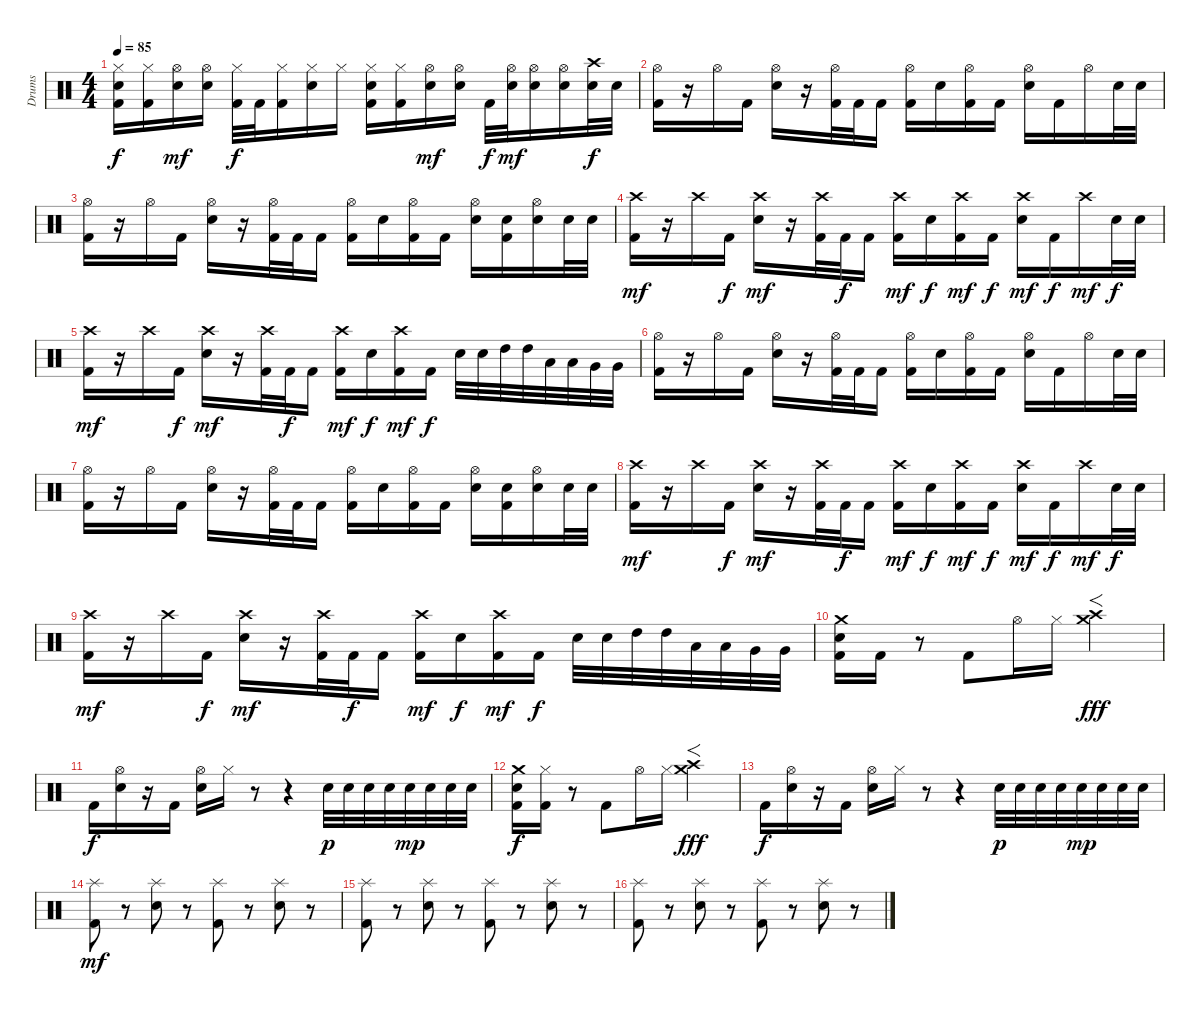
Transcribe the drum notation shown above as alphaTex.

\track ("Drums" "Drums") {instrument percussion}
\staff {score}
\articulation defaults
\ts (4 4)
\tempo 85
\clef neutral
\ks c
("Hi-Hat (closed)" "Kick (hit) 2" "Snare (hit) 2").16{dy f} ("Hi-Hat (closed)" "Kick (hit) 2").16 ("Hi-Hat (open)" "Snare (hit) 2").16{dy mf} ("Hi-Hat (open)" "Snare (hit) 2").16 ("Hi-Hat (closed)" "Kick (hit) 2").32{dy f} "Kick (hit) 2".32 ("Hi-Hat (closed)" "Kick (hit) 2").16 ("Hi-Hat (closed)" "Snare (hit) 2").16 "Hi-Hat (closed)".16 ("Hi-Hat (closed)" "Kick (hit) 2" "Snare (hit) 2").16 ("Hi-Hat (closed)" "Kick (hit) 2").16 ("Hi-Hat (open)" "Snare (hit) 2").16{dy mf} ("Hi-Hat (open)" "Snare (hit) 2").16 "Kick (hit) 2".32{dy f} ("Hi-Hat (open)" "Snare (hit) 2").32{dy mf} ("Hi-Hat (open)" "Snare (hit) 2").16 ("Hi-Hat (open)" "Snare (hit) 2").16 ("Crash high (hit)" "Snare (hit) 2").32{dy f} "Snare (hit) 2".32 |
("Hi-Hat (open)" "Kick (hit) 2").16 r.16 "Hi-Hat (open)".16 "Kick (hit) 2".16 ("Hi-Hat (open)" "Snare (hit) 2").16 r.16 ("Hi-Hat (open)" "Kick (hit) 2").32 "Kick (hit) 2".32 "Kick (hit) 2".16 ("Hi-Hat (open)" "Kick (hit) 2").16 "Snare (hit) 2".16 ("Hi-Hat (open)" "Kick (hit) 2").16 "Kick (hit) 2".16 ("Hi-Hat (open)" "Snare (hit) 2").16 "Kick (hit) 2".16 "Hi-Hat (open)".16 "Snare (hit) 2".32 "Snare (hit) 2".32 |
("Hi-Hat (open)" "Kick (hit) 2").16 r.16 "Hi-Hat (open)".16 "Kick (hit) 2".16 ("Hi-Hat (open)" "Snare (hit) 2").16 r.16 ("Hi-Hat (open)" "Kick (hit) 2").32 "Kick (hit) 2".32 "Kick (hit) 2".16 ("Hi-Hat (open)" "Kick (hit) 2").16 "Snare (hit) 2".16 ("Hi-Hat (open)" "Kick (hit) 2").16 "Kick (hit) 2".16 ("Hi-Hat (open)" "Snare (hit) 2").16 ("Snare (hit) 2" "Kick (hit) 2").16 ("Hi-Hat (open)" "Snare (hit) 2").16 "Snare (hit) 2".32 "Snare (hit) 2".32 |
("Crash high (hit)" "Kick (hit) 2").16{dy mf} r.16 "Crash high (hit)".16 "Kick (hit) 2".16{dy f} ("Crash high (hit)" "Snare (hit) 2").16{dy mf} r.16 ("Crash high (hit)" "Kick (hit) 2").32 "Kick (hit) 2".32{dy f} "Kick (hit) 2".16 ("Crash high (hit)" "Kick (hit) 2").16{dy mf} "Snare (hit) 2".16{dy f} ("Crash high (hit)" "Kick (hit) 2").16{dy mf} "Kick (hit) 2".16{dy f} ("Crash high (hit)" "Snare (hit) 2").16{dy mf} "Kick (hit) 2".16{dy f} "Crash high (hit)".16{dy mf} "Snare (hit) 2".32{dy f} "Snare (hit) 2".32 |
("Crash high (hit)" "Kick (hit) 2").16{dy mf} r.16 "Crash high (hit)".16 "Kick (hit) 2".16{dy f} ("Crash high (hit)" "Snare (hit) 2").16{dy mf} r.16 ("Crash high (hit)" "Kick (hit) 2").32 "Kick (hit) 2".32{dy f} "Kick (hit) 2".16 ("Crash high (hit)" "Kick (hit) 2").16{dy mf} "Snare (hit) 2".16{dy f} ("Crash high (hit)" "Kick (hit) 2").16{dy mf} "Kick (hit) 2".16{dy f} "Snare (hit) 2".32 "Snare (hit) 2".32 "High Tom (hit)".32 "High Tom (hit)".32 "Low Tom (hit)".32 "Low Tom (hit)".32 "Very Low Tom (hit)".32 "Very Low Tom (hit)".32 |
("Hi-Hat (open)" "Kick (hit) 2").16 r.16 "Hi-Hat (open)".16 "Kick (hit) 2".16 ("Hi-Hat (open)" "Snare (hit) 2").16 r.16 ("Hi-Hat (open)" "Kick (hit) 2").32 "Kick (hit) 2".32 "Kick (hit) 2".16 ("Hi-Hat (open)" "Kick (hit) 2").16 "Snare (hit) 2".16 ("Hi-Hat (open)" "Kick (hit) 2").16 "Kick (hit) 2".16 ("Hi-Hat (open)" "Snare (hit) 2").16 "Kick (hit) 2".16 "Hi-Hat (open)".16 "Snare (hit) 2".32 "Snare (hit) 2".32 |
("Hi-Hat (open)" "Kick (hit) 2").16 r.16 "Hi-Hat (open)".16 "Kick (hit) 2".16 ("Hi-Hat (open)" "Snare (hit) 2").16 r.16 ("Hi-Hat (open)" "Kick (hit) 2").32 "Kick (hit) 2".32 "Kick (hit) 2".16 ("Hi-Hat (open)" "Kick (hit) 2").16 "Snare (hit) 2".16 ("Hi-Hat (open)" "Kick (hit) 2").16 "Kick (hit) 2".16 ("Hi-Hat (open)" "Snare (hit) 2").16 ("Snare (hit) 2" "Kick (hit) 2").16 ("Hi-Hat (open)" "Snare (hit) 2").16 "Snare (hit) 2".32 "Snare (hit) 2".32 |
("Crash high (hit)" "Kick (hit) 2").16{dy mf} r.16 "Crash high (hit)".16 "Kick (hit) 2".16{dy f} ("Crash high (hit)" "Snare (hit) 2").16{dy mf} r.16 ("Crash high (hit)" "Kick (hit) 2").32 "Kick (hit) 2".32{dy f} "Kick (hit) 2".16 ("Crash high (hit)" "Kick (hit) 2").16{dy mf} "Snare (hit) 2".16{dy f} ("Crash high (hit)" "Kick (hit) 2").16{dy mf} "Kick (hit) 2".16{dy f} ("Crash high (hit)" "Snare (hit) 2").16{dy mf} "Kick (hit) 2".16{dy f} "Crash high (hit)".16{dy mf} "Snare (hit) 2".32{dy f} "Snare (hit) 2".32 |
("Crash high (hit)" "Kick (hit) 2").16{dy mf} r.16 "Crash high (hit)".16 "Kick (hit) 2".16{dy f} ("Crash high (hit)" "Snare (hit) 2").16{dy mf} r.16 ("Crash high (hit)" "Kick (hit) 2").32 "Kick (hit) 2".32{dy f} "Kick (hit) 2".16 ("Crash high (hit)" "Kick (hit) 2").16{dy mf} "Snare (hit) 2".16{dy f} ("Crash high (hit)" "Kick (hit) 2").16{dy mf} "Kick (hit) 2".16{dy f} "Snare (hit) 2".32 "Snare (hit) 2".32 "High Tom (hit)".32 "High Tom (hit)".32 "Low Tom (hit)".32 "Low Tom (hit)".32 "Very Low Tom (hit)".32 "Very Low Tom (hit)".32 |
("Crash medium (hit)" "Snare (hit) 2" "Kick (hit) 2").16 "Kick (hit) 2".16 r.8 "Kick (hit) 2".8 "Hi-Hat (open)".16 "Hi-Hat (closed)".16 ("Crash high (hit)" "Crash medium (hit)").2{f dy fff} |
"Kick (hit) 2".16{dy f} ("Hi-Hat (open)" "Snare (hit) 2").16 r.16 "Kick (hit) 2".16 ("Hi-Hat (open)" "Snare (hit) 2").16 "Hi-Hat (closed)".16 r.8 r.4 "Electric Snare (hit)".32{dy p} "Electric Snare (hit)".32 "Electric Snare (hit)".32 "Electric Snare (hit)".32 "Electric Snare (hit)".32{dy mp} "Electric Snare (hit)".32 "Electric Snare (hit)".32 "Electric Snare (hit)".32 |
("Crash medium (hit)" "Snare (hit) 2" "Kick (hit) 2").16{dy f} ("Hi-Hat (closed)" "Kick (hit) 2").16 r.8 "Kick (hit) 2".8 "Hi-Hat (open)".16 "Hi-Hat (closed)".16 ("Crash high (hit)" "Crash medium (hit)").2{f dy fff} |
"Kick (hit) 2".16{dy f} ("Hi-Hat (open)" "Snare (hit) 2").16 r.16 "Kick (hit) 2".16 ("Hi-Hat (open)" "Snare (hit) 2").16 "Hi-Hat (closed)".16 r.8 r.4 "Electric Snare (hit)".32{dy p} "Electric Snare (hit)".32 "Electric Snare (hit)".32 "Electric Snare (hit)".32 "Electric Snare (hit)".32{dy mp} "Electric Snare (hit)".32 "Electric Snare (hit)".32 "Electric Snare (hit)".32 |
("Splash (hit)" "Kick (hit) 2").8{dy mf} r.8 ("Splash (hit)" "Snare (hit) 2").8 r.8 ("Splash (hit)" "Kick (hit) 2").8 r.8 ("Splash (hit)" "Snare (hit) 2").8 r.8 |
("Splash (hit)" "Kick (hit) 2").8 r.8 ("Splash (hit)" "Snare (hit) 2").8 r.8 ("Splash (hit)" "Kick (hit) 2").8 r.8 ("Splash (hit)" "Snare (hit) 2").8 r.8 |
("Splash (hit)" "Kick (hit) 2").8 r.8 ("Splash (hit)" "Snare (hit) 2").8 r.8 ("Splash (hit)" "Kick (hit) 2").8 r.8 ("Splash (hit)" "Snare (hit) 2").8 r.8
